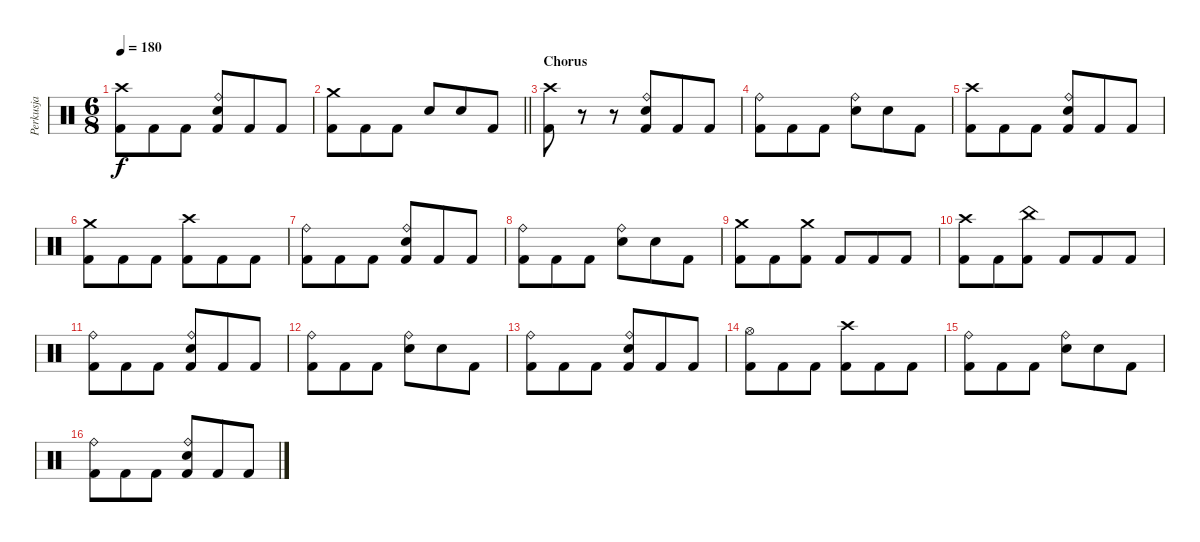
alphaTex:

\track ("Perkusja" "Perkusja") {instrument percussion}
\staff {score}
\articulation defaults
\ts (6 8)
\tempo 180
\clef neutral
\ks c
("Crash high (hit)" "Kick (hit) 2").8{dy f} "Kick (hit) 2".8 "Kick (hit) 2".8 ("Ride (bell)" "Snare (hit) 2" "Kick (hit) 2").8 "Kick (hit) 2".8 "Kick (hit) 2".8 |
\barLineRight lightlight
("Crash medium (hit)" "Kick (hit) 2").8 "Kick (hit) 2".8 "Kick (hit) 2".8 "Snare (hit) 2".8 "Snare (hit) 2".8 "Kick (hit) 2".8 |
\section ("" "Chorus")
("Crash high (hit)" "Kick (hit) 2").8 r.8 r.8 ("Ride (bell)" "Snare (hit) 2" "Kick (hit) 2").8 "Kick (hit) 2".8 "Kick (hit) 2".8 |
("Ride (bell)" "Kick (hit) 2").8 "Kick (hit) 2".8 "Kick (hit) 2".8 ("Ride (bell)" "Snare (hit) 2").8 "Snare (hit) 2".8 "Kick (hit) 2".8 |
("Crash high (hit)" "Kick (hit) 2").8 "Kick (hit) 2".8 "Kick (hit) 2".8 ("Ride (bell)" "Snare (hit) 2" "Kick (hit) 2").8 "Kick (hit) 2".8 "Kick (hit) 2".8 |
("Crash medium (hit)" "Kick (hit) 2").8 "Kick (hit) 2".8 "Kick (hit) 2".8 ("Crash high (hit)" "Kick (hit) 2").8 "Kick (hit) 2".8 "Kick (hit) 2".8 |
("Ride (bell)" "Kick (hit) 2").8 "Kick (hit) 2".8 "Kick (hit) 2".8 ("Ride (bell)" "Snare (hit) 2" "Kick (hit) 2").8 "Kick (hit) 2".8 "Kick (hit) 2".8 |
("Ride (bell)" "Kick (hit) 2").8 "Kick (hit) 2".8 "Kick (hit) 2".8 ("Ride (bell)" "Snare (hit) 2").8 "Snare (hit) 2".8 "Kick (hit) 2".8 |
("Crash medium (hit)" "Kick (hit) 2").8 "Kick (hit) 2".8 ("Crash medium (hit)" "Kick (hit) 2").8 "Kick (hit) 2".8 "Kick (hit) 2".8 "Kick (hit) 2".8 |
("Crash high (hit)" "Kick (hit) 2").8 "Kick (hit) 2".8 ("China (hit)" "Kick (hit) 2").8 "Kick (hit) 2".8 "Kick (hit) 2".8 "Kick (hit) 2".8 |
("Ride (bell)" "Kick (hit) 2").8 "Kick (hit) 2".8 "Kick (hit) 2".8 ("Ride (bell)" "Snare (hit) 2" "Kick (hit) 2").8 "Kick (hit) 2".8 "Kick (hit) 2".8 |
("Ride (bell)" "Kick (hit) 2").8 "Kick (hit) 2".8 "Kick (hit) 2".8 ("Ride (bell)" "Snare (hit) 2").8 "Snare (hit) 2".8 "Kick (hit) 2".8 |
("Ride (bell)" "Kick (hit) 2").8 "Kick (hit) 2".8 "Kick (hit) 2".8 ("Ride (bell)" "Snare (hit) 2" "Kick (hit) 2").8 "Kick (hit) 2".8 "Kick (hit) 2".8 |
("Hi-Hat (open)" "Kick (hit) 2").8 "Kick (hit) 2".8 "Kick (hit) 2".8 ("Crash high (hit)" "Kick (hit) 2").8 "Kick (hit) 2".8 "Kick (hit) 2".8 |
("Ride (bell)" "Kick (hit) 2").8 "Kick (hit) 2".8 "Kick (hit) 2".8 ("Ride (bell)" "Snare (hit) 2").8 "Snare (hit) 2".8 "Kick (hit) 2".8 |
("Ride (bell)" "Kick (hit) 2").8 "Kick (hit) 2".8 "Kick (hit) 2".8 ("Ride (bell)" "Snare (hit) 2" "Kick (hit) 2").8 "Kick (hit) 2".8 "Kick (hit) 2".8
